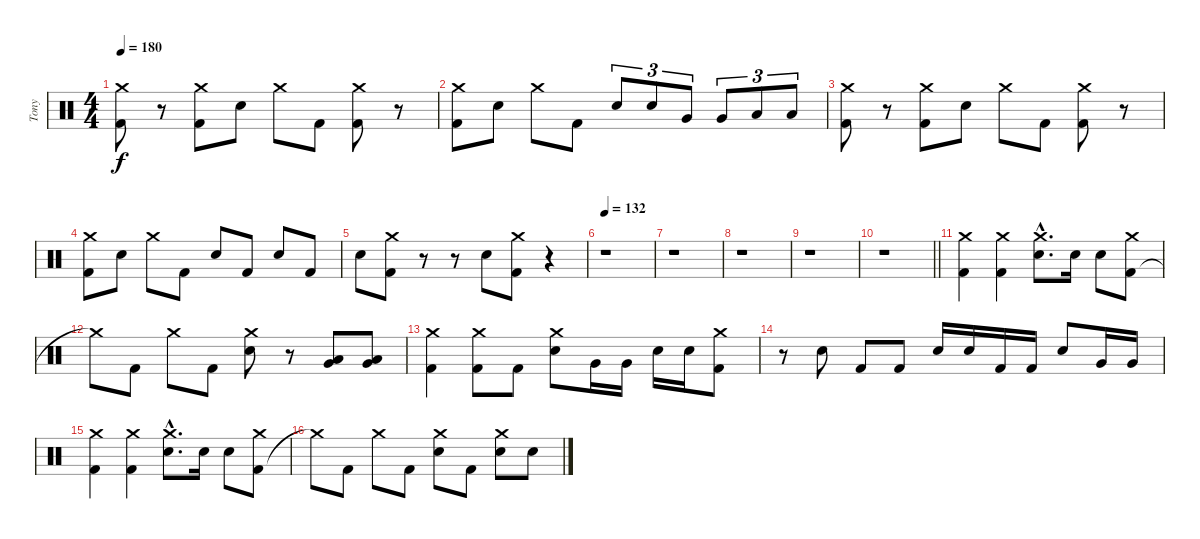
\track ("Tony" "Tony") {instrument percussion}
\staff {score}
\articulation defaults
\ts (4 4)
\tempo 180
\clef neutral
\ks c
("Crash medium (hit)" "Kick (hit) 2").8{dy f} r.8 ("Crash medium (hit)" "Kick (hit) 2").8 "Electric Snare (hit)".8 "Crash medium (hit)".8 "Kick (hit) 2".8 ("Crash medium (hit)" "Kick (hit) 2").8 r.8 |
("Crash medium (hit)" "Kick (hit) 2").8 "Electric Snare (hit)".8 "Crash medium (hit)".8 "Kick (hit) 2".8 "Electric Snare (hit)".8{tu (3 2)} "Electric Snare (hit)".8{tu (3 2)} "Very Low Tom (hit)".8{tu (3 2)} "Very Low Tom (hit)".8{tu (3 2)} "Low Floor Tom (hit)".8{tu (3 2)} "Low Floor Tom (hit)".8{tu (3 2)} |
("Crash medium (hit)" "Kick (hit) 2").8 r.8 ("Crash medium (hit)" "Kick (hit) 2").8 "Electric Snare (hit)".8 "Crash medium (hit)".8 "Kick (hit) 2".8 ("Crash medium (hit)" "Kick (hit) 2").8 r.8 |
("Crash medium (hit)" "Kick (hit) 2").8 "Electric Snare (hit)".8 "Crash medium (hit)".8 "Kick (hit) 2".8 "Electric Snare (hit)".8 "Kick (hit) 2".8 "Electric Snare (hit)".8 "Kick (hit) 2".8 |
"Electric Snare (hit)".8 ("Crash medium (hit)" "Kick (hit) 2").8 r.8 r.8 "Electric Snare (hit)".8 ("Crash medium (hit)" "Kick (hit) 2").8 r.4 |
\tempo 132
r.1 |
r.1 |
r.1 |
r.1 |
\barLineRight lightlight
r.1 |
\section ("" "")
("Kick (hit) 2" "Crash medium (hit)").4 ("Kick (hit) 2" "Crash medium (hit)").4 ("Electric Snare (hit)"{hac} "Crash medium (hit)"{hac}).8{d} "Electric Snare (hit)".16 "Electric Snare (hit)".8 ("Kick (hit) 2" "Crash medium (hit)").8 |
"Crash medium (hit)"{t}.8 "Kick (hit) 2".8 "Crash medium (hit)".8 "Kick (hit) 2".8 ("Electric Snare (hit)" "Crash medium (hit)").8 r.8 ("Very Low Tom (hit)" "Low Floor Tom (hit)").8 ("Very Low Tom (hit)" "Low Floor Tom (hit)").8 |
("Kick (hit) 2" "Crash medium (hit)").4 ("Crash medium (hit)" "Kick (hit) 2").8 "Kick (hit) 2".8 ("Electric Snare (hit)" "Crash medium (hit)").8 "Very Low Tom (hit)".16 "Very Low Tom (hit)".16 "Electric Snare (hit)".16 "Electric Snare (hit)".16 ("Crash medium (hit)" "Kick (hit) 2").8 |
r.8 "Electric Snare (hit)".8 "Kick (hit) 2".8 "Kick (hit) 2".8 "Electric Snare (hit)".16 "Electric Snare (hit)".16 "Kick (hit) 2".16 "Kick (hit) 2".16 "Electric Snare (hit)".8 "Very Low Tom (hit)".16 "Very Low Tom (hit)".16 |
("Kick (hit) 2" "Crash medium (hit)").4 ("Kick (hit) 2" "Crash medium (hit)").4 ("Electric Snare (hit)"{hac} "Crash medium (hit)"{hac}).8{d} "Electric Snare (hit)".16 "Electric Snare (hit)".8 ("Kick (hit) 2" "Crash medium (hit)").8 |
"Crash medium (hit)"{t}.8 "Kick (hit) 2".8 "Crash medium (hit)".8 "Kick (hit) 2".8 ("Electric Snare (hit)" "Crash medium (hit)").8 "Kick (hit) 2".8 ("Crash medium (hit)" "Electric Snare (hit)").8 "Electric Snare (hit)".8
